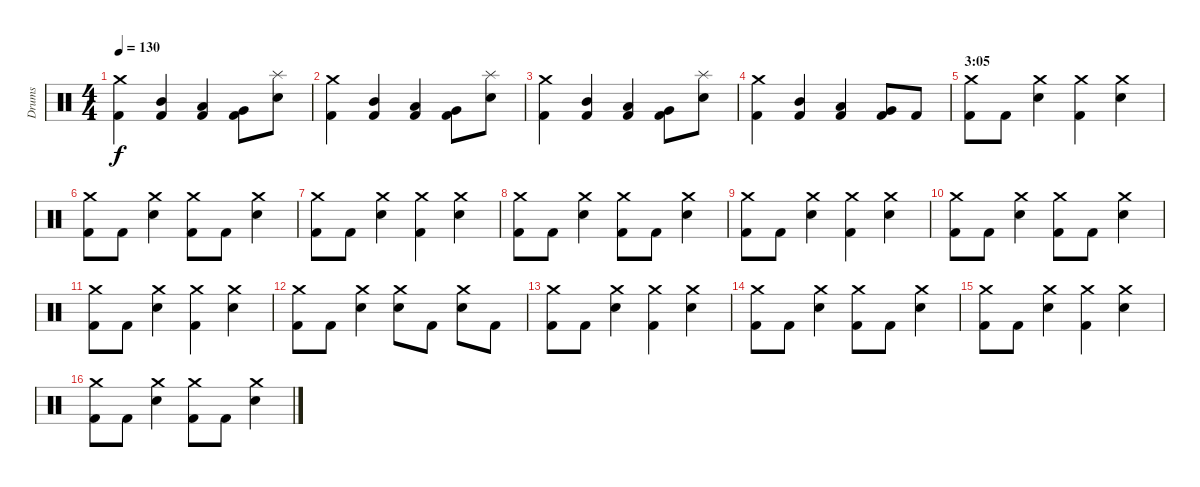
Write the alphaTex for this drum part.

\track ("Drums" "Drums") {instrument percussion}
\staff {score}
\articulation defaults
\ts (4 4)
\tempo 130
\clef neutral
\ks c
("Crash medium (hit)" "Kick (hit) 2").4{dy f} ("Mid Tom (hit)" "Kick (hit) 2").4 ("Low Tom (hit)" "Kick (hit) 2").4 ("Very Low Tom (hit)" "Kick (hit) 2").8 ("Splash (hit)" "Snare (hit) 2").8 |
("Crash medium (hit)" "Kick (hit) 2").4 ("Mid Tom (hit)" "Kick (hit) 2").4 ("Low Tom (hit)" "Kick (hit) 2").4 ("Very Low Tom (hit)" "Kick (hit) 2").8 ("Splash (hit)" "Snare (hit) 2").8 |
("Crash medium (hit)" "Kick (hit) 2").4 ("Mid Tom (hit)" "Kick (hit) 2").4 ("Low Tom (hit)" "Kick (hit) 2").4 ("Very Low Tom (hit)" "Kick (hit) 2").8 ("Splash (hit)" "Snare (hit) 2").8 |
("Crash medium (hit)" "Kick (hit) 2").4 ("Mid Tom (hit)" "Kick (hit) 2").4 ("Low Tom (hit)" "Kick (hit) 2").4 ("Very Low Tom (hit)" "Kick (hit) 2").8 "Kick (hit) 2".8 |
\section ("" "3:05")
("Crash medium (hit)" "Kick (hit) 2").8 "Kick (hit) 2".8 ("Crash medium (hit)" "Snare (hit) 2").4 ("Crash medium (hit)" "Kick (hit) 2").4 ("Crash medium (hit)" "Snare (hit) 2").4 |
("Crash medium (hit)" "Kick (hit) 2").8 "Kick (hit) 2".8 ("Crash medium (hit)" "Snare (hit) 2").4 ("Crash medium (hit)" "Kick (hit) 2").8 "Kick (hit) 2".8 ("Crash medium (hit)" "Snare (hit) 2").4 |
("Crash medium (hit)" "Kick (hit) 2").8 "Kick (hit) 2".8 ("Crash medium (hit)" "Snare (hit) 2").4 ("Crash medium (hit)" "Kick (hit) 2").4 ("Crash medium (hit)" "Snare (hit) 2").4 |
("Crash medium (hit)" "Kick (hit) 2").8 "Kick (hit) 2".8 ("Crash medium (hit)" "Snare (hit) 2").4 ("Crash medium (hit)" "Kick (hit) 2").8 "Kick (hit) 2".8 ("Crash medium (hit)" "Snare (hit) 2").4 |
("Crash medium (hit)" "Kick (hit) 2").8 "Kick (hit) 2".8 ("Crash medium (hit)" "Snare (hit) 2").4 ("Crash medium (hit)" "Kick (hit) 2").4 ("Crash medium (hit)" "Snare (hit) 2").4 |
("Crash medium (hit)" "Kick (hit) 2").8 "Kick (hit) 2".8 ("Crash medium (hit)" "Snare (hit) 2").4 ("Crash medium (hit)" "Kick (hit) 2").8 "Kick (hit) 2".8 ("Crash medium (hit)" "Snare (hit) 2").4 |
("Crash medium (hit)" "Kick (hit) 2").8 "Kick (hit) 2".8 ("Crash medium (hit)" "Snare (hit) 2").4 ("Crash medium (hit)" "Kick (hit) 2").4 ("Crash medium (hit)" "Snare (hit) 2").4 |
("Crash medium (hit)" "Kick (hit) 2").8 "Kick (hit) 2".8 ("Crash medium (hit)" "Snare (hit) 2").4 ("Crash medium (hit)" "Snare (hit) 2").8 "Kick (hit) 2".8 ("Crash medium (hit)" "Snare (hit) 2").8 "Kick (hit) 2".8 |
("Crash medium (hit)" "Kick (hit) 2").8 "Kick (hit) 2".8 ("Crash medium (hit)" "Snare (hit) 2").4 ("Crash medium (hit)" "Kick (hit) 2").4 ("Crash medium (hit)" "Snare (hit) 2").4 |
("Crash medium (hit)" "Kick (hit) 2").8 "Kick (hit) 2".8 ("Crash medium (hit)" "Snare (hit) 2").4 ("Crash medium (hit)" "Kick (hit) 2").8 "Kick (hit) 2".8 ("Crash medium (hit)" "Snare (hit) 2").4 |
("Crash medium (hit)" "Kick (hit) 2").8 "Kick (hit) 2".8 ("Crash medium (hit)" "Snare (hit) 2").4 ("Crash medium (hit)" "Kick (hit) 2").4 ("Crash medium (hit)" "Snare (hit) 2").4 |
("Crash medium (hit)" "Kick (hit) 2").8 "Kick (hit) 2".8 ("Crash medium (hit)" "Snare (hit) 2").4 ("Crash medium (hit)" "Kick (hit) 2").8 "Kick (hit) 2".8 ("Crash medium (hit)" "Snare (hit) 2").4
